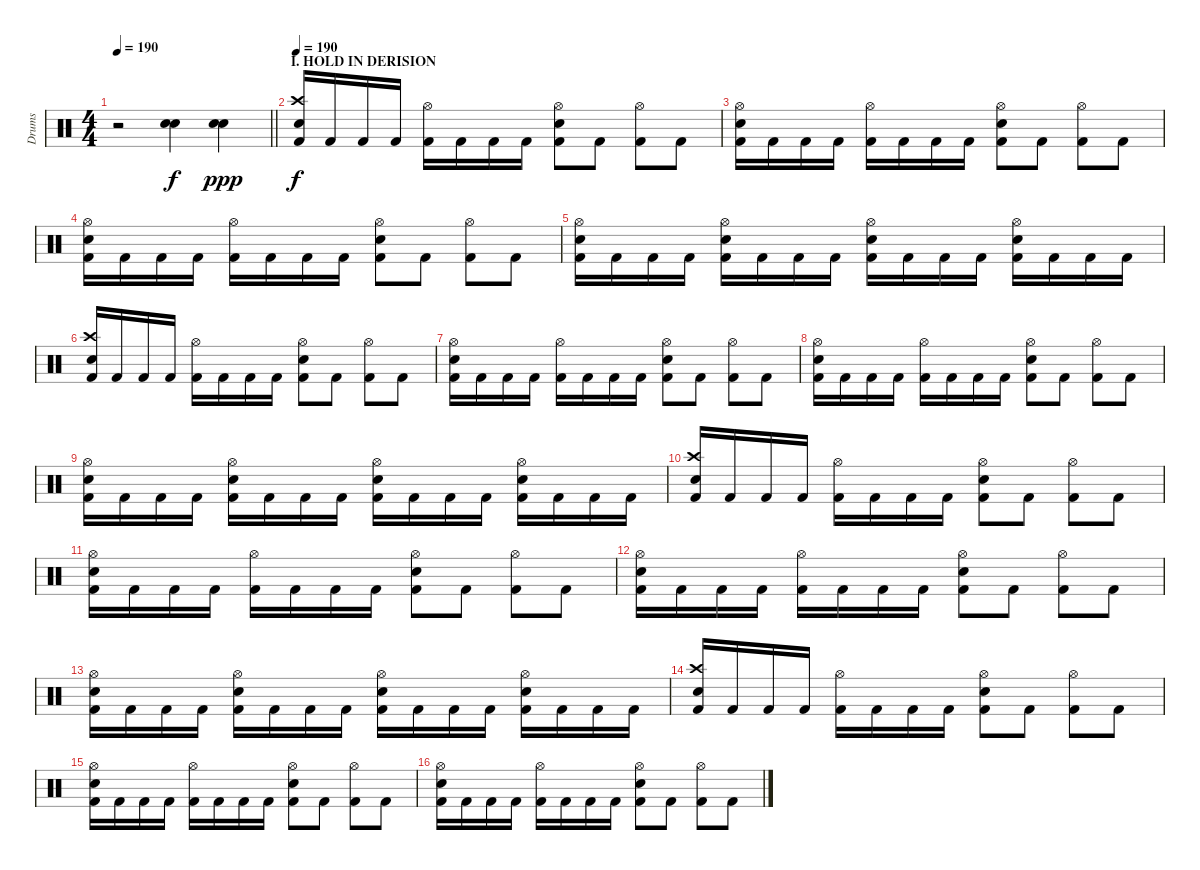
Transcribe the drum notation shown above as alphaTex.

\track ("Drums" "Drums") {instrument percussion}
\staff {score}
\articulation defaults
\ts (4 4)
\tempo 190
\clef neutral
\barLineRight lightlight
\ks c
r.2{dy f} ("Electric Snare (hit)" "Snare (hit) 2").4 ("Electric Snare (hit)" "Snare (hit) 2").4{dy ppp} |
\section ("" "I. HOLD IN DERISION")
\tempo 190
("Crash high (hit)" "Snare (hit) 2" "Kick (hit) 2").16{dy f} "Kick (hit) 2".16 "Kick (hit) 2".16 "Kick (hit) 2".16 ("Hi-Hat (open)" "Kick (hit) 2").16 "Kick (hit) 2".16 "Kick (hit) 2".16 "Kick (hit) 2".16 ("Hi-Hat (open)" "Snare (hit) 2" "Kick (hit) 2").8 "Kick (hit) 2".8 ("Hi-Hat (open)" "Kick (hit) 2").8 "Kick (hit) 2".8 |
("Hi-Hat (open)" "Snare (hit) 2" "Kick (hit) 2").16 "Kick (hit) 2".16 "Kick (hit) 2".16 "Kick (hit) 2".16 ("Hi-Hat (open)" "Kick (hit) 2").16 "Kick (hit) 2".16 "Kick (hit) 2".16 "Kick (hit) 2".16 ("Hi-Hat (open)" "Snare (hit) 2" "Kick (hit) 2").8 "Kick (hit) 2".8 ("Hi-Hat (open)" "Kick (hit) 2").8 "Kick (hit) 2".8 |
("Hi-Hat (open)" "Snare (hit) 2" "Kick (hit) 2").16 "Kick (hit) 2".16 "Kick (hit) 2".16 "Kick (hit) 2".16 ("Hi-Hat (open)" "Kick (hit) 2").16 "Kick (hit) 2".16 "Kick (hit) 2".16 "Kick (hit) 2".16 ("Hi-Hat (open)" "Snare (hit) 2" "Kick (hit) 2").8 "Kick (hit) 2".8 ("Hi-Hat (open)" "Kick (hit) 2").8 "Kick (hit) 2".8 |
("Hi-Hat (open)" "Snare (hit) 2" "Kick (hit) 2").16 "Kick (hit) 2".16 "Kick (hit) 2".16 "Kick (hit) 2".16 ("Hi-Hat (open)" "Snare (hit) 2" "Kick (hit) 2").16 "Kick (hit) 2".16 "Kick (hit) 2".16 "Kick (hit) 2".16 ("Hi-Hat (open)" "Snare (hit) 2" "Kick (hit) 2").16 "Kick (hit) 2".16 "Kick (hit) 2".16 "Kick (hit) 2".16 ("Hi-Hat (open)" "Snare (hit) 2" "Kick (hit) 2").16 "Kick (hit) 2".16 "Kick (hit) 2".16 "Kick (hit) 2".16 |
("Crash high (hit)" "Snare (hit) 2" "Kick (hit) 2").16 "Kick (hit) 2".16 "Kick (hit) 2".16 "Kick (hit) 2".16 ("Hi-Hat (open)" "Kick (hit) 2").16 "Kick (hit) 2".16 "Kick (hit) 2".16 "Kick (hit) 2".16 ("Hi-Hat (open)" "Snare (hit) 2" "Kick (hit) 2").8 "Kick (hit) 2".8 ("Hi-Hat (open)" "Kick (hit) 2").8 "Kick (hit) 2".8 |
("Hi-Hat (open)" "Snare (hit) 2" "Kick (hit) 2").16 "Kick (hit) 2".16 "Kick (hit) 2".16 "Kick (hit) 2".16 ("Hi-Hat (open)" "Kick (hit) 2").16 "Kick (hit) 2".16 "Kick (hit) 2".16 "Kick (hit) 2".16 ("Hi-Hat (open)" "Snare (hit) 2" "Kick (hit) 2").8 "Kick (hit) 2".8 ("Hi-Hat (open)" "Kick (hit) 2").8 "Kick (hit) 2".8 |
("Hi-Hat (open)" "Snare (hit) 2" "Kick (hit) 2").16 "Kick (hit) 2".16 "Kick (hit) 2".16 "Kick (hit) 2".16 ("Hi-Hat (open)" "Kick (hit) 2").16 "Kick (hit) 2".16 "Kick (hit) 2".16 "Kick (hit) 2".16 ("Hi-Hat (open)" "Snare (hit) 2" "Kick (hit) 2").8 "Kick (hit) 2".8 ("Hi-Hat (open)" "Kick (hit) 2").8 "Kick (hit) 2".8 |
("Hi-Hat (open)" "Snare (hit) 2" "Kick (hit) 2").16 "Kick (hit) 2".16 "Kick (hit) 2".16 "Kick (hit) 2".16 ("Hi-Hat (open)" "Snare (hit) 2" "Kick (hit) 2").16 "Kick (hit) 2".16 "Kick (hit) 2".16 "Kick (hit) 2".16 ("Hi-Hat (open)" "Snare (hit) 2" "Kick (hit) 2").16 "Kick (hit) 2".16 "Kick (hit) 2".16 "Kick (hit) 2".16 ("Hi-Hat (open)" "Snare (hit) 2" "Kick (hit) 2").16 "Kick (hit) 2".16 "Kick (hit) 2".16 "Kick (hit) 2".16 |
("Crash high (hit)" "Snare (hit) 2" "Kick (hit) 2").16 "Kick (hit) 2".16 "Kick (hit) 2".16 "Kick (hit) 2".16 ("Hi-Hat (open)" "Kick (hit) 2").16 "Kick (hit) 2".16 "Kick (hit) 2".16 "Kick (hit) 2".16 ("Hi-Hat (open)" "Snare (hit) 2" "Kick (hit) 2").8 "Kick (hit) 2".8 ("Hi-Hat (open)" "Kick (hit) 2").8 "Kick (hit) 2".8 |
("Hi-Hat (open)" "Snare (hit) 2" "Kick (hit) 2").16 "Kick (hit) 2".16 "Kick (hit) 2".16 "Kick (hit) 2".16 ("Hi-Hat (open)" "Kick (hit) 2").16 "Kick (hit) 2".16 "Kick (hit) 2".16 "Kick (hit) 2".16 ("Hi-Hat (open)" "Snare (hit) 2" "Kick (hit) 2").8 "Kick (hit) 2".8 ("Hi-Hat (open)" "Kick (hit) 2").8 "Kick (hit) 2".8 |
("Hi-Hat (open)" "Snare (hit) 2" "Kick (hit) 2").16 "Kick (hit) 2".16 "Kick (hit) 2".16 "Kick (hit) 2".16 ("Hi-Hat (open)" "Kick (hit) 2").16 "Kick (hit) 2".16 "Kick (hit) 2".16 "Kick (hit) 2".16 ("Hi-Hat (open)" "Snare (hit) 2" "Kick (hit) 2").8 "Kick (hit) 2".8 ("Hi-Hat (open)" "Kick (hit) 2").8 "Kick (hit) 2".8 |
("Hi-Hat (open)" "Snare (hit) 2" "Kick (hit) 2").16 "Kick (hit) 2".16 "Kick (hit) 2".16 "Kick (hit) 2".16 ("Hi-Hat (open)" "Snare (hit) 2" "Kick (hit) 2").16 "Kick (hit) 2".16 "Kick (hit) 2".16 "Kick (hit) 2".16 ("Hi-Hat (open)" "Snare (hit) 2" "Kick (hit) 2").16 "Kick (hit) 2".16 "Kick (hit) 2".16 "Kick (hit) 2".16 ("Hi-Hat (open)" "Snare (hit) 2" "Kick (hit) 2").16 "Kick (hit) 2".16 "Kick (hit) 2".16 "Kick (hit) 2".16 |
("Crash high (hit)" "Snare (hit) 2" "Kick (hit) 2").16 "Kick (hit) 2".16 "Kick (hit) 2".16 "Kick (hit) 2".16 ("Hi-Hat (open)" "Kick (hit) 2").16 "Kick (hit) 2".16 "Kick (hit) 2".16 "Kick (hit) 2".16 ("Hi-Hat (open)" "Snare (hit) 2" "Kick (hit) 2").8 "Kick (hit) 2".8 ("Hi-Hat (open)" "Kick (hit) 2").8 "Kick (hit) 2".8 |
("Hi-Hat (open)" "Snare (hit) 2" "Kick (hit) 2").16 "Kick (hit) 2".16 "Kick (hit) 2".16 "Kick (hit) 2".16 ("Hi-Hat (open)" "Kick (hit) 2").16 "Kick (hit) 2".16 "Kick (hit) 2".16 "Kick (hit) 2".16 ("Hi-Hat (open)" "Snare (hit) 2" "Kick (hit) 2").8 "Kick (hit) 2".8 ("Hi-Hat (open)" "Kick (hit) 2").8 "Kick (hit) 2".8 |
("Hi-Hat (open)" "Snare (hit) 2" "Kick (hit) 2").16 "Kick (hit) 2".16 "Kick (hit) 2".16 "Kick (hit) 2".16 ("Hi-Hat (open)" "Kick (hit) 2").16 "Kick (hit) 2".16 "Kick (hit) 2".16 "Kick (hit) 2".16 ("Hi-Hat (open)" "Snare (hit) 2" "Kick (hit) 2").8 "Kick (hit) 2".8 ("Hi-Hat (open)" "Kick (hit) 2").8 "Kick (hit) 2".8
